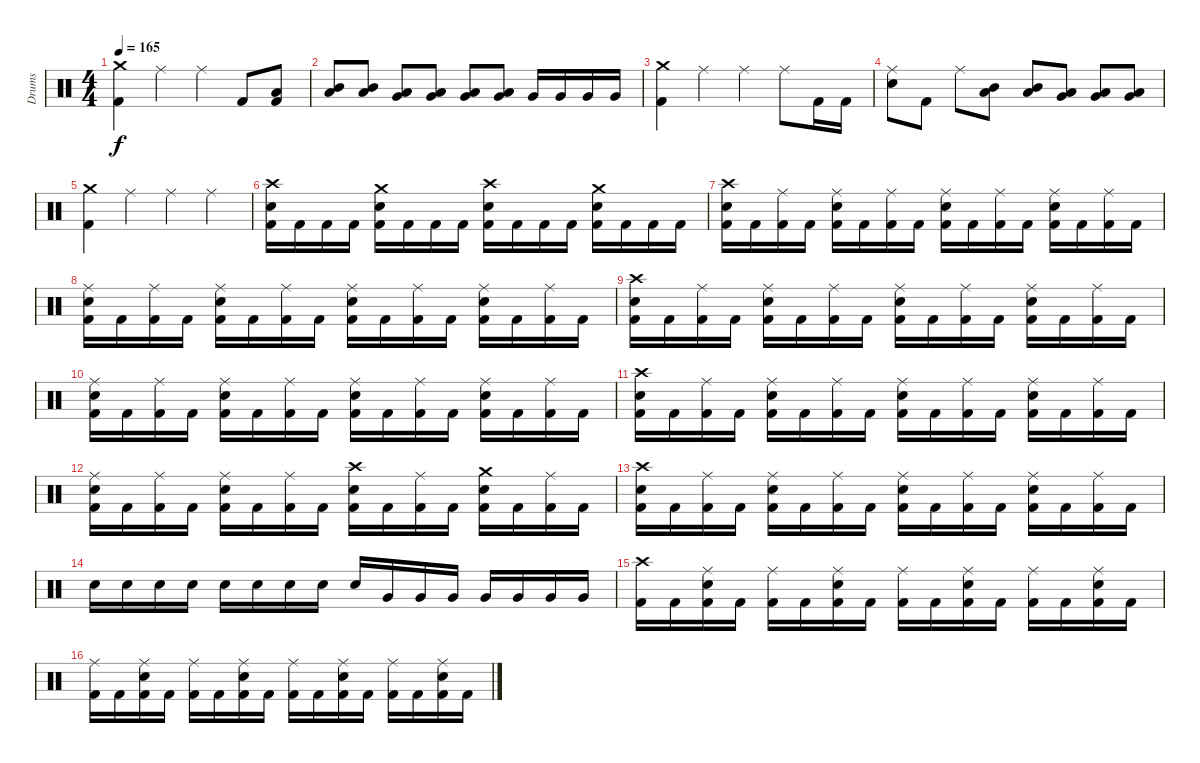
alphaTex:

\track ("Drums" "Drums") {instrument percussion}
\staff {score}
\articulation defaults
\ts (4 4)
\tempo 165
\clef neutral
\ks c
("Crash medium (hit)" "Kick (hit) 2").4{dy f} "Ride (middle)".4 "Ride (middle)".4 "Kick (hit) 2".8 ("Low Floor Tom (hit)" "Kick (hit) 2").8 |
("Mid Tom (hit)" "Low Tom (hit)").8 ("Mid Tom (hit)" "Low Tom (hit)").8 ("Low Tom (hit)" "Very Low Tom (hit)").8 ("Low Tom (hit)" "Very Low Tom (hit)").8 ("Very Low Tom (hit)" "Low Floor Tom (hit)").8 ("Very Low Tom (hit)" "Low Floor Tom (hit)").8 "Very Low Tom (hit)".16 "Very Low Tom (hit)".16 "Very Low Tom (hit)".16 "Very Low Tom (hit)".16 |
("Crash medium (hit)" "Kick (hit) 2").4 "Ride (middle)".4 "Ride (middle)".4 "Ride (middle)".8 "Kick (hit) 2".16 "Kick (hit) 2".16 |
("Ride (middle)" "Electric Snare (hit)").8 "Kick (hit) 2".8 "Ride (middle)".8 ("Mid Tom (hit)" "Low Tom (hit)").8 ("Mid Tom (hit)" "Low Tom (hit)").8 ("Low Tom (hit)" "Very Low Tom (hit)").8 ("Very Low Tom (hit)" "Low Floor Tom (hit)").8 ("Very Low Tom (hit)" "Low Floor Tom (hit)").8 |
("Crash medium (hit)" "Kick (hit) 2").4 "Ride (middle)".4 "Ride (middle)".4 "Ride (middle)".4 |
("Crash high (hit)" "Electric Snare (hit)" "Kick (hit) 2").16 "Kick (hit) 2".16 "Kick (hit) 2".16 "Kick (hit) 2".16 ("Crash medium (hit)" "Electric Snare (hit)" "Kick (hit) 2").16 "Kick (hit) 2".16 "Kick (hit) 2".16 "Kick (hit) 2".16 ("Crash high (hit)" "Electric Snare (hit)" "Kick (hit) 2").16 "Kick (hit) 2".16 "Kick (hit) 2".16 "Kick (hit) 2".16 ("Crash medium (hit)" "Electric Snare (hit)" "Kick (hit) 2").16 "Kick (hit) 2".16 "Kick (hit) 2".16 "Kick (hit) 2".16 |
("Crash high (hit)" "Electric Snare (hit)" "Kick (hit) 2").16 "Kick (hit) 2".16 ("Ride (middle)" "Kick (hit) 2").16 "Kick (hit) 2".16 ("Ride (middle)" "Electric Snare (hit)" "Kick (hit) 2").16 "Kick (hit) 2".16 ("Ride (middle)" "Kick (hit) 2").16 "Kick (hit) 2".16 ("Ride (middle)" "Electric Snare (hit)" "Kick (hit) 2").16 "Kick (hit) 2".16 ("Ride (middle)" "Kick (hit) 2").16 "Kick (hit) 2".16 ("Ride (middle)" "Electric Snare (hit)" "Kick (hit) 2").16 "Kick (hit) 2".16 ("Ride (middle)" "Kick (hit) 2").16 "Kick (hit) 2".16 |
("Ride (middle)" "Electric Snare (hit)" "Kick (hit) 2").16 "Kick (hit) 2".16 ("Ride (middle)" "Kick (hit) 2").16 "Kick (hit) 2".16 ("Ride (middle)" "Electric Snare (hit)" "Kick (hit) 2").16 "Kick (hit) 2".16 ("Ride (middle)" "Kick (hit) 2").16 "Kick (hit) 2".16 ("Ride (middle)" "Electric Snare (hit)" "Kick (hit) 2").16 "Kick (hit) 2".16 ("Ride (middle)" "Kick (hit) 2").16 "Kick (hit) 2".16 ("Ride (middle)" "Electric Snare (hit)" "Kick (hit) 2").16 "Kick (hit) 2".16 ("Ride (middle)" "Kick (hit) 2").16 "Kick (hit) 2".16 |
("Crash high (hit)" "Electric Snare (hit)" "Kick (hit) 2").16 "Kick (hit) 2".16 ("Ride (middle)" "Kick (hit) 2").16 "Kick (hit) 2".16 ("Ride (middle)" "Electric Snare (hit)" "Kick (hit) 2").16 "Kick (hit) 2".16 ("Ride (middle)" "Kick (hit) 2").16 "Kick (hit) 2".16 ("Ride (middle)" "Electric Snare (hit)" "Kick (hit) 2").16 "Kick (hit) 2".16 ("Ride (middle)" "Kick (hit) 2").16 "Kick (hit) 2".16 ("Ride (middle)" "Electric Snare (hit)" "Kick (hit) 2").16 "Kick (hit) 2".16 ("Ride (middle)" "Kick (hit) 2").16 "Kick (hit) 2".16 |
("Ride (middle)" "Electric Snare (hit)" "Kick (hit) 2").16 "Kick (hit) 2".16 ("Ride (middle)" "Kick (hit) 2").16 "Kick (hit) 2".16 ("Ride (middle)" "Electric Snare (hit)" "Kick (hit) 2").16 "Kick (hit) 2".16 ("Ride (middle)" "Kick (hit) 2").16 "Kick (hit) 2".16 ("Ride (middle)" "Electric Snare (hit)" "Kick (hit) 2").16 "Kick (hit) 2".16 ("Ride (middle)" "Kick (hit) 2").16 "Kick (hit) 2".16 ("Ride (middle)" "Electric Snare (hit)" "Kick (hit) 2").16 "Kick (hit) 2".16 ("Ride (middle)" "Kick (hit) 2").16 "Kick (hit) 2".16 |
("Crash high (hit)" "Electric Snare (hit)" "Kick (hit) 2").16 "Kick (hit) 2".16 ("Ride (middle)" "Kick (hit) 2").16 "Kick (hit) 2".16 ("Ride (middle)" "Electric Snare (hit)" "Kick (hit) 2").16 "Kick (hit) 2".16 ("Ride (middle)" "Kick (hit) 2").16 "Kick (hit) 2".16 ("Ride (middle)" "Electric Snare (hit)" "Kick (hit) 2").16 "Kick (hit) 2".16 ("Ride (middle)" "Kick (hit) 2").16 "Kick (hit) 2".16 ("Ride (middle)" "Electric Snare (hit)" "Kick (hit) 2").16 "Kick (hit) 2".16 ("Ride (middle)" "Kick (hit) 2").16 "Kick (hit) 2".16 |
("Ride (middle)" "Electric Snare (hit)" "Kick (hit) 2").16 "Kick (hit) 2".16 ("Ride (middle)" "Kick (hit) 2").16 "Kick (hit) 2".16 ("Ride (middle)" "Electric Snare (hit)" "Kick (hit) 2").16 "Kick (hit) 2".16 ("Ride (middle)" "Kick (hit) 2").16 "Kick (hit) 2".16 ("Crash high (hit)" "Electric Snare (hit)" "Kick (hit) 2").16 "Kick (hit) 2".16 ("Ride (middle)" "Kick (hit) 2").16 "Kick (hit) 2".16 ("Crash medium (hit)" "Electric Snare (hit)" "Kick (hit) 2").16 "Kick (hit) 2".16 ("Ride (middle)" "Kick (hit) 2").16 "Kick (hit) 2".16 |
("Crash high (hit)" "Electric Snare (hit)" "Kick (hit) 2").16 "Kick (hit) 2".16 ("Ride (middle)" "Kick (hit) 2").16 "Kick (hit) 2".16 ("Ride (middle)" "Electric Snare (hit)" "Kick (hit) 2").16 "Kick (hit) 2".16 ("Ride (middle)" "Kick (hit) 2").16 "Kick (hit) 2".16 ("Ride (middle)" "Electric Snare (hit)" "Kick (hit) 2").16 "Kick (hit) 2".16 ("Ride (middle)" "Kick (hit) 2").16 "Kick (hit) 2".16 ("Ride (middle)" "Electric Snare (hit)" "Kick (hit) 2").16 "Kick (hit) 2".16 ("Ride (middle)" "Kick (hit) 2").16 "Kick (hit) 2".16 |
"Electric Snare (hit)".16 "Electric Snare (hit)".16 "Electric Snare (hit)".16 "Electric Snare (hit)".16 "Electric Snare (hit)".16 "Electric Snare (hit)".16 "Electric Snare (hit)".16 "Electric Snare (hit)".16 "Electric Snare (hit)".16 "Very Low Tom (hit)".16 "Very Low Tom (hit)".16 "Very Low Tom (hit)".16 "Very Low Tom (hit)".16 "Very Low Tom (hit)".16 "Very Low Tom (hit)".16 "Very Low Tom (hit)".16 |
("Crash high (hit)" "Kick (hit) 2").16 "Kick (hit) 2".16 ("Ride (middle)" "Electric Snare (hit)" "Kick (hit) 2").16 "Kick (hit) 2".16 ("Ride (middle)" "Kick (hit) 2").16 "Kick (hit) 2".16 ("Ride (middle)" "Electric Snare (hit)" "Kick (hit) 2").16 "Kick (hit) 2".16 ("Ride (middle)" "Kick (hit) 2").16 "Kick (hit) 2".16 ("Ride (middle)" "Electric Snare (hit)" "Kick (hit) 2").16 "Kick (hit) 2".16 ("Ride (middle)" "Kick (hit) 2").16 "Kick (hit) 2".16 ("Ride (middle)" "Electric Snare (hit)" "Kick (hit) 2").16 "Kick (hit) 2".16 |
("Ride (middle)" "Kick (hit) 2").16 "Kick (hit) 2".16 ("Ride (middle)" "Electric Snare (hit)" "Kick (hit) 2").16 "Kick (hit) 2".16 ("Ride (middle)" "Kick (hit) 2").16 "Kick (hit) 2".16 ("Ride (middle)" "Electric Snare (hit)" "Kick (hit) 2").16 "Kick (hit) 2".16 ("Ride (middle)" "Kick (hit) 2").16 "Kick (hit) 2".16 ("Ride (middle)" "Electric Snare (hit)" "Kick (hit) 2").16 "Kick (hit) 2".16 ("Ride (middle)" "Kick (hit) 2").16 "Kick (hit) 2".16 ("Ride (middle)" "Electric Snare (hit)" "Kick (hit) 2").16 "Kick (hit) 2".16
